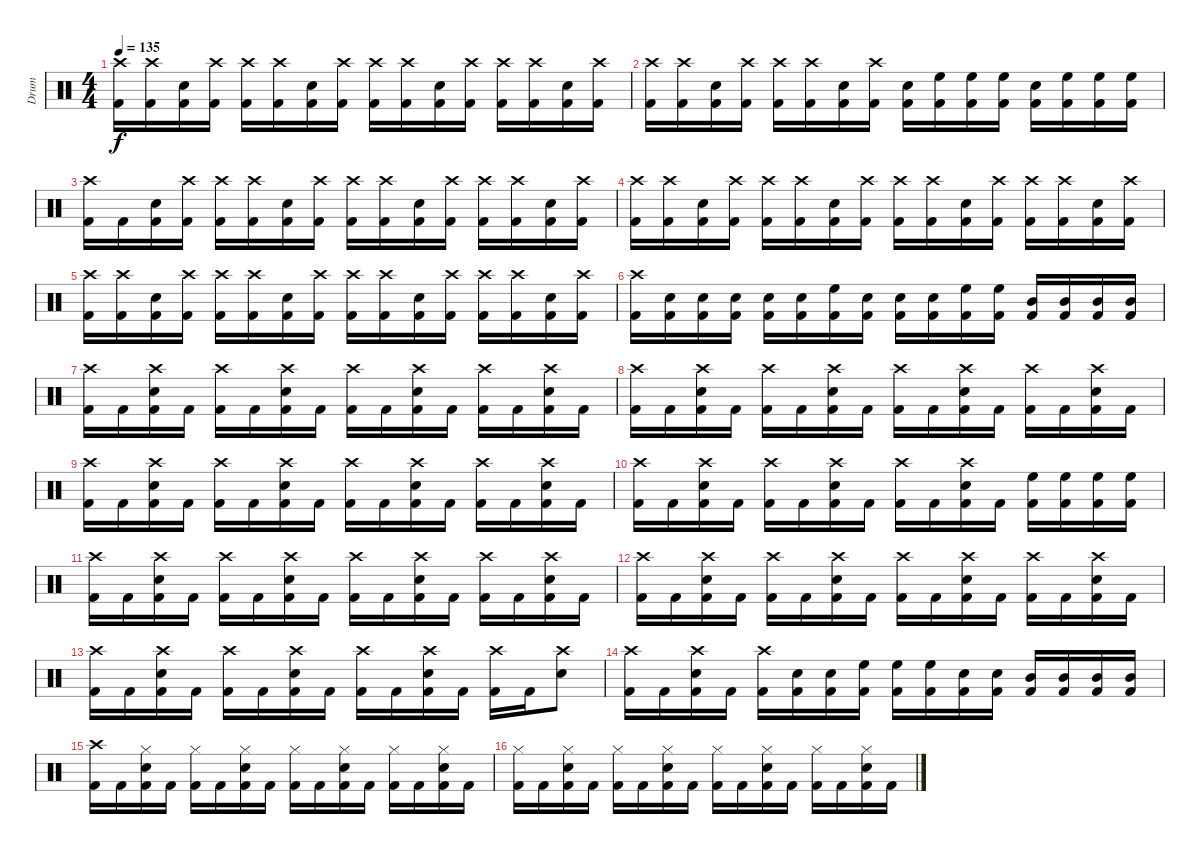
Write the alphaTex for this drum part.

\track ("Drum" "Drum") {instrument percussion}
\staff {score}
\articulation defaults
\ts (4 4)
\tempo 135
\clef neutral
\ks c
("Kick (hit) 2" "Crash high (hit)").16{dy f} ("Kick (hit) 2" "Crash high (hit)").16 ("Kick (hit) 2" "Snare (hit) 2").16 ("Kick (hit) 2" "Crash high (hit)").16 ("Kick (hit) 2" "Crash high (hit)").16 ("Kick (hit) 2" "Crash high (hit)").16 ("Kick (hit) 2" "Snare (hit) 2").16 ("Kick (hit) 2" "Crash high (hit)").16 ("Kick (hit) 2" "Crash high (hit)").16 ("Kick (hit) 2" "Crash high (hit)").16 ("Kick (hit) 2" "Snare (hit) 2").16 ("Kick (hit) 2" "Crash high (hit)").16 ("Kick (hit) 2" "Crash high (hit)").16 ("Kick (hit) 2" "Crash high (hit)").16 ("Kick (hit) 2" "Snare (hit) 2").16 ("Kick (hit) 2" "Crash high (hit)").16 |
("Kick (hit) 2" "Crash high (hit)").16 ("Kick (hit) 2" "Crash high (hit)").16 ("Kick (hit) 2" "Snare (hit) 2").16 ("Kick (hit) 2" "Crash high (hit)").16 ("Kick (hit) 2" "Crash high (hit)").16 ("Kick (hit) 2" "Crash high (hit)").16 ("Kick (hit) 2" "Snare (hit) 2").16 ("Kick (hit) 2" "Crash high (hit)").16 ("Kick (hit) 2" "Snare (hit) 2").16 ("Kick (hit) 2" "High Floor Tom (hit)").16 ("Kick (hit) 2" "High Floor Tom (hit)").16 ("Kick (hit) 2" "High Floor Tom (hit)").16 ("Kick (hit) 2" "Snare (hit) 2").16 ("Kick (hit) 2" "High Floor Tom (hit)").16 ("Kick (hit) 2" "High Floor Tom (hit)").16 ("Kick (hit) 2" "High Floor Tom (hit)").16 |
("Crash high (hit)" "Kick (hit) 2").16 "Kick (hit) 2".16 ("Kick (hit) 2" "Snare (hit) 2").16 ("Kick (hit) 2" "Crash high (hit)").16 ("Kick (hit) 2" "Crash high (hit)").16 ("Kick (hit) 2" "Crash high (hit)").16 ("Kick (hit) 2" "Snare (hit) 2").16 ("Kick (hit) 2" "Crash high (hit)").16 ("Kick (hit) 2" "Crash high (hit)").16 ("Kick (hit) 2" "Crash high (hit)").16 ("Kick (hit) 2" "Snare (hit) 2").16 ("Kick (hit) 2" "Crash high (hit)").16 ("Kick (hit) 2" "Crash high (hit)").16 ("Kick (hit) 2" "Crash high (hit)").16 ("Kick (hit) 2" "Snare (hit) 2").16 ("Kick (hit) 2" "Crash high (hit)").16 |
("Kick (hit) 2" "Crash high (hit)").16 ("Kick (hit) 2" "Crash high (hit)").16 ("Kick (hit) 2" "Snare (hit) 2").16 ("Kick (hit) 2" "Crash high (hit)").16 ("Kick (hit) 2" "Crash high (hit)").16 ("Kick (hit) 2" "Crash high (hit)").16 ("Kick (hit) 2" "Snare (hit) 2").16 ("Kick (hit) 2" "Crash high (hit)").16 ("Kick (hit) 2" "Crash high (hit)").16 ("Kick (hit) 2" "Crash high (hit)").16 ("Kick (hit) 2" "Snare (hit) 2").16 ("Kick (hit) 2" "Crash high (hit)").16 ("Kick (hit) 2" "Crash high (hit)").16 ("Kick (hit) 2" "Crash high (hit)").16 ("Kick (hit) 2" "Snare (hit) 2").16 ("Kick (hit) 2" "Crash high (hit)").16 |
("Kick (hit) 2" "Crash high (hit)").16 ("Kick (hit) 2" "Crash high (hit)").16 ("Kick (hit) 2" "Snare (hit) 2").16 ("Kick (hit) 2" "Crash high (hit)").16 ("Kick (hit) 2" "Crash high (hit)").16 ("Kick (hit) 2" "Crash high (hit)").16 ("Kick (hit) 2" "Snare (hit) 2").16 ("Kick (hit) 2" "Crash high (hit)").16 ("Kick (hit) 2" "Crash high (hit)").16 ("Kick (hit) 2" "Crash high (hit)").16 ("Kick (hit) 2" "Snare (hit) 2").16 ("Kick (hit) 2" "Crash high (hit)").16 ("Kick (hit) 2" "Crash high (hit)").16 ("Kick (hit) 2" "Crash high (hit)").16 ("Kick (hit) 2" "Snare (hit) 2").16 ("Kick (hit) 2" "Crash high (hit)").16 |
("Crash high (hit)" "Kick (hit) 2").16 ("Kick (hit) 2" "Snare (hit) 2").16 ("Kick (hit) 2" "Snare (hit) 2").16 ("Kick (hit) 2" "Snare (hit) 2").16 ("Kick (hit) 2" "Snare (hit) 2").16 ("Kick (hit) 2" "Snare (hit) 2").16 ("High Floor Tom (hit)" "Kick (hit) 2").16 ("Kick (hit) 2" "Snare (hit) 2").16 ("Kick (hit) 2" "Snare (hit) 2").16 ("Kick (hit) 2" "Snare (hit) 2").16 ("High Floor Tom (hit)" "Kick (hit) 2").16 ("High Floor Tom (hit)" "Kick (hit) 2").16 ("Mid Tom (hit)" "Kick (hit) 2").16 ("Mid Tom (hit)" "Kick (hit) 2").16 ("Mid Tom (hit)" "Kick (hit) 2").16 ("Mid Tom (hit)" "Kick (hit) 2").16 |
("Kick (hit) 2" "Crash high (hit)").16 "Kick (hit) 2".16 ("Kick (hit) 2" "Crash high (hit)" "Snare (hit) 2").16 "Kick (hit) 2".16 ("Kick (hit) 2" "Crash high (hit)").16 "Kick (hit) 2".16 ("Kick (hit) 2" "Crash high (hit)" "Snare (hit) 2").16 "Kick (hit) 2".16 ("Kick (hit) 2" "Crash high (hit)").16 "Kick (hit) 2".16 ("Kick (hit) 2" "Crash high (hit)" "Snare (hit) 2").16 "Kick (hit) 2".16 ("Kick (hit) 2" "Crash high (hit)").16 "Kick (hit) 2".16 ("Kick (hit) 2" "Crash high (hit)" "Snare (hit) 2").16 "Kick (hit) 2".16 |
("Kick (hit) 2" "Crash high (hit)").16 "Kick (hit) 2".16 ("Kick (hit) 2" "Crash high (hit)" "Snare (hit) 2").16 "Kick (hit) 2".16 ("Kick (hit) 2" "Crash high (hit)").16 "Kick (hit) 2".16 ("Kick (hit) 2" "Crash high (hit)" "Snare (hit) 2").16 "Kick (hit) 2".16 ("Kick (hit) 2" "Crash high (hit)").16 "Kick (hit) 2".16 ("Kick (hit) 2" "Crash high (hit)" "Snare (hit) 2").16 "Kick (hit) 2".16 ("Kick (hit) 2" "Crash high (hit)").16 "Kick (hit) 2".16 ("Kick (hit) 2" "Crash high (hit)" "Snare (hit) 2").16 "Kick (hit) 2".16 |
("Kick (hit) 2" "Crash high (hit)").16 "Kick (hit) 2".16 ("Kick (hit) 2" "Crash high (hit)" "Snare (hit) 2").16 "Kick (hit) 2".16 ("Kick (hit) 2" "Crash high (hit)").16 "Kick (hit) 2".16 ("Kick (hit) 2" "Crash high (hit)" "Snare (hit) 2").16 "Kick (hit) 2".16 ("Kick (hit) 2" "Crash high (hit)").16 "Kick (hit) 2".16 ("Kick (hit) 2" "Crash high (hit)" "Snare (hit) 2").16 "Kick (hit) 2".16 ("Kick (hit) 2" "Crash high (hit)").16 "Kick (hit) 2".16 ("Kick (hit) 2" "Crash high (hit)" "Snare (hit) 2").16 "Kick (hit) 2".16 |
("Kick (hit) 2" "Crash high (hit)").16 "Kick (hit) 2".16 ("Kick (hit) 2" "Crash high (hit)" "Snare (hit) 2").16 "Kick (hit) 2".16 ("Kick (hit) 2" "Crash high (hit)").16 "Kick (hit) 2".16 ("Kick (hit) 2" "Crash high (hit)" "Snare (hit) 2").16 "Kick (hit) 2".16 ("Kick (hit) 2" "Crash high (hit)").16 "Kick (hit) 2".16 ("Kick (hit) 2" "Crash high (hit)" "Snare (hit) 2").16 "Kick (hit) 2".16 ("Kick (hit) 2" "High Floor Tom (hit)").16 ("Kick (hit) 2" "High Floor Tom (hit)").16 ("Kick (hit) 2" "High Floor Tom (hit)").16 ("Kick (hit) 2" "High Floor Tom (hit)").16 |
("Kick (hit) 2" "Crash high (hit)").16 "Kick (hit) 2".16 ("Kick (hit) 2" "Crash high (hit)" "Snare (hit) 2").16 "Kick (hit) 2".16 ("Kick (hit) 2" "Crash high (hit)").16 "Kick (hit) 2".16 ("Kick (hit) 2" "Crash high (hit)" "Snare (hit) 2").16 "Kick (hit) 2".16 ("Kick (hit) 2" "Crash high (hit)").16 "Kick (hit) 2".16 ("Kick (hit) 2" "Crash high (hit)" "Snare (hit) 2").16 "Kick (hit) 2".16 ("Kick (hit) 2" "Crash high (hit)").16 "Kick (hit) 2".16 ("Kick (hit) 2" "Crash high (hit)" "Snare (hit) 2").16 "Kick (hit) 2".16 |
("Kick (hit) 2" "Crash high (hit)").16 "Kick (hit) 2".16 ("Kick (hit) 2" "Crash high (hit)" "Snare (hit) 2").16 "Kick (hit) 2".16 ("Kick (hit) 2" "Crash high (hit)").16 "Kick (hit) 2".16 ("Kick (hit) 2" "Crash high (hit)" "Snare (hit) 2").16 "Kick (hit) 2".16 ("Kick (hit) 2" "Crash high (hit)").16 "Kick (hit) 2".16 ("Kick (hit) 2" "Crash high (hit)" "Snare (hit) 2").16 "Kick (hit) 2".16 ("Kick (hit) 2" "Crash high (hit)").16 "Kick (hit) 2".16 ("Kick (hit) 2" "Crash high (hit)" "Snare (hit) 2").16 "Kick (hit) 2".16 |
("Kick (hit) 2" "Crash high (hit)").16 "Kick (hit) 2".16 ("Kick (hit) 2" "Crash high (hit)" "Snare (hit) 2").16 "Kick (hit) 2".16 ("Kick (hit) 2" "Crash high (hit)").16 "Kick (hit) 2".16 ("Kick (hit) 2" "Crash high (hit)" "Snare (hit) 2").16 "Kick (hit) 2".16 ("Kick (hit) 2" "Crash high (hit)").16 "Kick (hit) 2".16 ("Kick (hit) 2" "Crash high (hit)" "Snare (hit) 2").16 "Kick (hit) 2".16 ("Kick (hit) 2" "Crash high (hit)").16 "Kick (hit) 2".16 ("Crash high (hit)" "Snare (hit) 2").8 |
("Crash high (hit)" "Kick (hit) 2").16 "Kick (hit) 2".16 ("Crash high (hit)" "Snare (hit) 2" "Kick (hit) 2").16 "Kick (hit) 2".16 ("Kick (hit) 2" "Crash high (hit)").16 ("Kick (hit) 2" "Snare (hit) 2").16 ("Kick (hit) 2" "Snare (hit) 2").16 ("Kick (hit) 2" "High Floor Tom (hit)").16 ("Kick (hit) 2" "High Floor Tom (hit)").16 ("Kick (hit) 2" "High Floor Tom (hit)").16 ("Kick (hit) 2" "Snare (hit) 2").16 ("Kick (hit) 2" "Snare (hit) 2").16 ("Kick (hit) 2" "Mid Tom (hit)").16 ("Kick (hit) 2" "Mid Tom (hit)").16 ("Kick (hit) 2" "Mid Tom (hit)").16 ("Kick (hit) 2" "Mid Tom (hit)").16 |
("Kick (hit) 2" "Crash high (hit)").16 "Kick (hit) 2".16 ("Kick (hit) 2" "Hi-Hat (closed)" "Snare (hit) 2").16 "Kick (hit) 2".16 ("Kick (hit) 2" "Hi-Hat (closed)").16 "Kick (hit) 2".16 ("Kick (hit) 2" "Hi-Hat (closed)" "Snare (hit) 2").16 "Kick (hit) 2".16 ("Kick (hit) 2" "Hi-Hat (closed)").16 "Kick (hit) 2".16 ("Kick (hit) 2" "Hi-Hat (closed)" "Snare (hit) 2").16 "Kick (hit) 2".16 ("Kick (hit) 2" "Hi-Hat (closed)").16 "Kick (hit) 2".16 ("Kick (hit) 2" "Hi-Hat (closed)" "Snare (hit) 2").16 "Kick (hit) 2".16 |
("Kick (hit) 2" "Hi-Hat (closed)").16 "Kick (hit) 2".16 ("Kick (hit) 2" "Hi-Hat (closed)" "Snare (hit) 2").16 "Kick (hit) 2".16 ("Kick (hit) 2" "Hi-Hat (closed)").16 "Kick (hit) 2".16 ("Kick (hit) 2" "Hi-Hat (closed)" "Snare (hit) 2").16 "Kick (hit) 2".16 ("Kick (hit) 2" "Hi-Hat (closed)").16 "Kick (hit) 2".16 ("Kick (hit) 2" "Hi-Hat (closed)" "Snare (hit) 2").16 "Kick (hit) 2".16 ("Kick (hit) 2" "Hi-Hat (closed)").16 "Kick (hit) 2".16 ("Kick (hit) 2" "Hi-Hat (closed)" "Snare (hit) 2").16 "Kick (hit) 2".16
